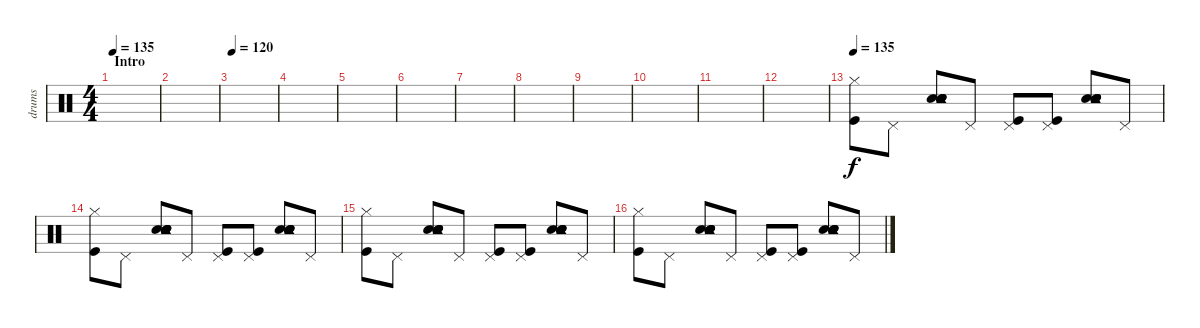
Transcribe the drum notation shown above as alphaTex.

\track ("drums" "drums") {instrument percussion}
\staff {score}
\articulation defaults
\ts (4 4)
\section ("" "Intro")
\tempo 135
\tempo 120
\tempo 135
\clef neutral
\ks c
|
|
\tempo 120
|
|
|
|
|
|
|
|
|
|
\tempo 135
("Kick (hit)" "Hi-Hat (closed)").8 "Pedal Hi-Hat (hit)".8 ("Snare (hit) 2" "Snare (hit) 2" "Electric Snare (hit)" "Electric Snare (hit)" "Tambourine (hit)").8 "Pedal Hi-Hat (hit)".8 ("Kick (hit)" "Pedal Hi-Hat (hit)").8 ("Kick (hit)" "Pedal Hi-Hat (hit)").8 ("Snare (hit) 2" "Snare (hit) 2" "Electric Snare (hit)" "Electric Snare (hit)" "Tambourine (hit)").8 "Pedal Hi-Hat (hit)".8 |
("Kick (hit)" "Hi-Hat (closed)").8 "Pedal Hi-Hat (hit)".8 ("Snare (hit) 2" "Snare (hit) 2" "Electric Snare (hit)" "Electric Snare (hit)" "Tambourine (hit)").8 "Pedal Hi-Hat (hit)".8 ("Kick (hit)" "Pedal Hi-Hat (hit)").8 ("Kick (hit)" "Pedal Hi-Hat (hit)").8 ("Snare (hit) 2" "Snare (hit) 2" "Electric Snare (hit)" "Electric Snare (hit)" "Tambourine (hit)").8 "Pedal Hi-Hat (hit)".8 |
("Kick (hit)" "Hi-Hat (closed)").8 "Pedal Hi-Hat (hit)".8 ("Snare (hit) 2" "Snare (hit) 2" "Electric Snare (hit)" "Electric Snare (hit)" "Tambourine (hit)").8 "Pedal Hi-Hat (hit)".8 ("Kick (hit)" "Pedal Hi-Hat (hit)").8 ("Kick (hit)" "Pedal Hi-Hat (hit)").8 ("Snare (hit) 2" "Snare (hit) 2" "Electric Snare (hit)" "Electric Snare (hit)" "Tambourine (hit)").8 "Pedal Hi-Hat (hit)".8 |
("Kick (hit)" "Hi-Hat (closed)").8 "Pedal Hi-Hat (hit)".8 ("Snare (hit) 2" "Snare (hit) 2" "Electric Snare (hit)" "Electric Snare (hit)" "Tambourine (hit)").8 "Pedal Hi-Hat (hit)".8 ("Kick (hit)" "Pedal Hi-Hat (hit)").8 ("Kick (hit)" "Pedal Hi-Hat (hit)").8 ("Snare (hit) 2" "Snare (hit) 2" "Electric Snare (hit)" "Electric Snare (hit)" "Tambourine (hit)").8 "Pedal Hi-Hat (hit)".8
